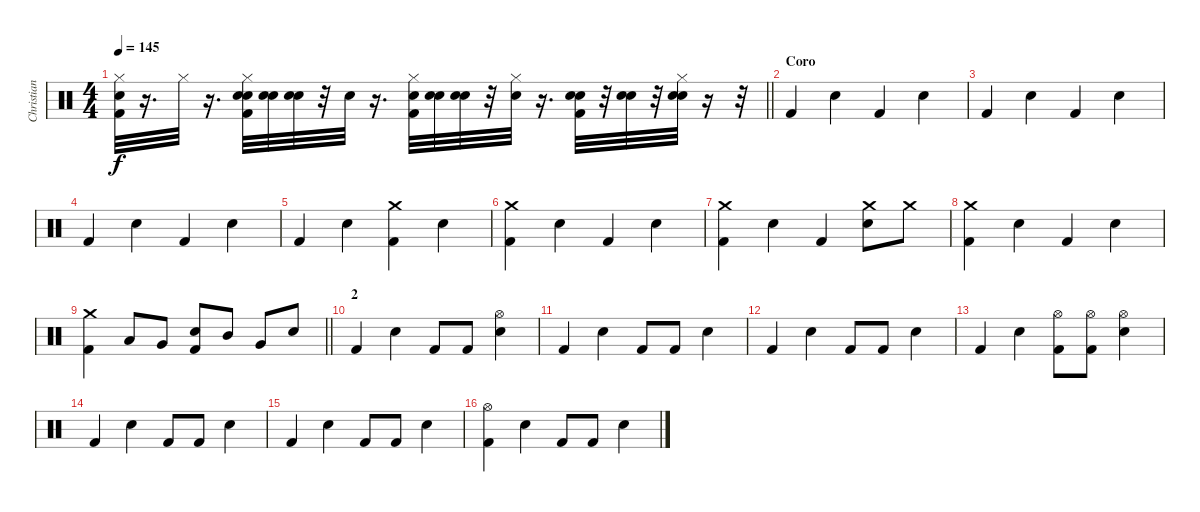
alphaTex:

\track ("Christian Paredes" "Christian ") {instrument percussion}
\staff {score}
\articulation defaults
\ts (4 4)
\tempo 145
\clef neutral
\barLineRight lightlight
\ks c
("Hi-Hat (closed)" "Kick (hit) 2" "Snare (hit) 2").32{dy f} r.16{d} "Hi-Hat (closed)".32 r.16{d} ("Electric Snare (hit)" "Snare (hit) 2" "Hi-Hat (closed)" "Kick (hit) 2").32 ("Electric Snare (hit)" "Snare (hit) 2").32 ("Electric Snare (hit)" "Snare (hit) 2").32 r.32 "Electric Snare (hit)".32 r.16{d} ("Snare (hit) 2" "Kick (hit) 2" "Hi-Hat (closed)").32 ("Electric Snare (hit)" "Snare (hit) 2").32 ("Electric Snare (hit)" "Snare (hit) 2").32 r.32 ("Snare (hit) 2" "Hi-Hat (closed)").32 r.16{d} ("Electric Snare (hit)" "Kick (hit) 2" "Snare (hit) 2").32 r.32 ("Electric Snare (hit)" "Snare (hit) 2").32 r.32 ("Electric Snare (hit)" "Snare (hit) 2" "Hi-Hat (closed)").32 r.16 r.32 |
\section ("" "Coro")
"Kick (hit) 2".4 "Snare (hit) 2".4 "Kick (hit) 2".4 "Snare (hit) 2".4 |
"Kick (hit) 2".4 "Snare (hit) 2".4 "Kick (hit) 2".4 "Snare (hit) 2".4 |
"Kick (hit) 2".4 "Snare (hit) 2".4 "Kick (hit) 2".4 "Snare (hit) 2".4 |
"Kick (hit) 2".4 "Snare (hit) 2".4 ("Crash medium (hit)" "Kick (hit) 2").4 "Snare (hit) 2".4 |
("Crash medium (hit)" "Kick (hit) 2").4 "Snare (hit) 2".4 "Kick (hit) 2".4 "Snare (hit) 2".4 |
("Crash medium (hit)" "Kick (hit) 2").4 "Snare (hit) 2".4 "Kick (hit) 2".4 ("Crash medium (hit)" "Snare (hit) 2").8 "Crash medium (hit)".8 |
("Crash medium (hit)" "Kick (hit) 2").4 "Snare (hit) 2".4 "Kick (hit) 2".4 "Snare (hit) 2".4 |
\barLineRight lightlight
("Crash medium (hit)" "Kick (hit) 2").4 "Low Tom (hit)".8 "Very Low Tom (hit)".8 ("Snare (hit) 2" "Kick (hit) 2").8 "Mid Tom (hit)".8 "Very Low Tom (hit)".8 "Snare (hit) 2".8 |
\section ("" "2")
"Kick (hit) 2".4 "Snare (hit) 2".4 "Kick (hit) 2".8 "Kick (hit) 2".8 ("Hi-Hat (open)" "Snare (hit) 2").4 |
"Kick (hit) 2".4 "Snare (hit) 2".4 "Kick (hit) 2".8 "Kick (hit) 2".8 "Snare (hit) 2".4 |
"Kick (hit) 2".4 "Snare (hit) 2".4 "Kick (hit) 2".8 "Kick (hit) 2".8 "Snare (hit) 2".4 |
"Kick (hit) 2".4 "Snare (hit) 2".4 ("Hi-Hat (open)" "Kick (hit) 2").8 ("Hi-Hat (open)" "Kick (hit) 2").8 ("Hi-Hat (open)" "Snare (hit) 2").4 |
"Kick (hit) 2".4 "Snare (hit) 2".4 "Kick (hit) 2".8 "Kick (hit) 2".8 "Snare (hit) 2".4 |
"Kick (hit) 2".4 "Snare (hit) 2".4 "Kick (hit) 2".8 "Kick (hit) 2".8 "Snare (hit) 2".4 |
("Hi-Hat (open)" "Kick (hit) 2").4 "Snare (hit) 2".4 "Kick (hit) 2".8 "Kick (hit) 2".8 "Snare (hit) 2".4
